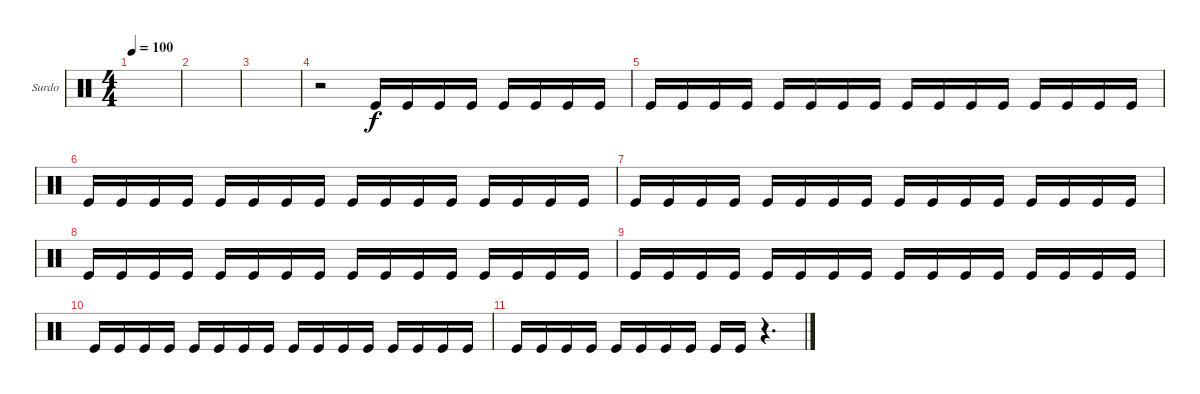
\bracketExtendMode groupsimilarinstruments
\firstSystemTrackNameOrientation horizontal
\otherSystemsTrackNameOrientation horizontal
\track ("Surdo" "Surdo") {instrument percussion}
\staff {score}
\articulation defaults
\ts (4 4)
\tempo 100
\clef neutral
\scale
0.333333
\ks c
|
\scale
0.333333 |
\scale
0.333333 |
\scale
0.333333 r.2 "Kick (hit)".16 "Kick (hit)".16 "Kick (hit)".16 "Kick (hit)".16 "Kick (hit)".16 "Kick (hit)".16 "Kick (hit)".16 "Kick (hit)".16 |
\scale
0.333333 "Kick (hit)".16 "Kick (hit)".16 "Kick (hit)".16 "Kick (hit)".16 "Kick (hit)".16 "Kick (hit)".16 "Kick (hit)".16 "Kick (hit)".16 "Kick (hit)".16 "Kick (hit)".16 "Kick (hit)".16 "Kick (hit)".16 "Kick (hit)".16 "Kick (hit)".16 "Kick (hit)".16 "Kick (hit)".16 |
\scale
0.333333 "Kick (hit)".16 "Kick (hit)".16 "Kick (hit)".16 "Kick (hit)".16 "Kick (hit)".16 "Kick (hit)".16 "Kick (hit)".16 "Kick (hit)".16 "Kick (hit)".16 "Kick (hit)".16 "Kick (hit)".16 "Kick (hit)".16 "Kick (hit)".16 "Kick (hit)".16 "Kick (hit)".16 "Kick (hit)".16 |
\scale
0.333333 "Kick (hit)".16 "Kick (hit)".16 "Kick (hit)".16 "Kick (hit)".16 "Kick (hit)".16 "Kick (hit)".16 "Kick (hit)".16 "Kick (hit)".16 "Kick (hit)".16 "Kick (hit)".16 "Kick (hit)".16 "Kick (hit)".16 "Kick (hit)".16 "Kick (hit)".16 "Kick (hit)".16 "Kick (hit)".16 |
\scale
0.333333 "Kick (hit)".16 "Kick (hit)".16 "Kick (hit)".16 "Kick (hit)".16 "Kick (hit)".16 "Kick (hit)".16 "Kick (hit)".16 "Kick (hit)".16 "Kick (hit)".16 "Kick (hit)".16 "Kick (hit)".16 "Kick (hit)".16 "Kick (hit)".16 "Kick (hit)".16 "Kick (hit)".16 "Kick (hit)".16 |
\scale
0.333333 "Kick (hit)".16 "Kick (hit)".16 "Kick (hit)".16 "Kick (hit)".16 "Kick (hit)".16 "Kick (hit)".16 "Kick (hit)".16 "Kick (hit)".16 "Kick (hit)".16 "Kick (hit)".16 "Kick (hit)".16 "Kick (hit)".16 "Kick (hit)".16 "Kick (hit)".16 "Kick (hit)".16 "Kick (hit)".16 |
"Kick (hit)".16 "Kick (hit)".16 "Kick (hit)".16 "Kick (hit)".16 "Kick (hit)".16 "Kick (hit)".16 "Kick (hit)".16 "Kick (hit)".16 "Kick (hit)".16 "Kick (hit)".16 "Kick (hit)".16 "Kick (hit)".16 "Kick (hit)".16 "Kick (hit)".16 "Kick (hit)".16 "Kick (hit)".16 |
"Kick (hit)".16 "Kick (hit)".16 "Kick (hit)".16 "Kick (hit)".16 "Kick (hit)".16 "Kick (hit)".16 "Kick (hit)".16 "Kick (hit)".16 "Kick (hit)".16 "Kick (hit)".16 r.4{d}
